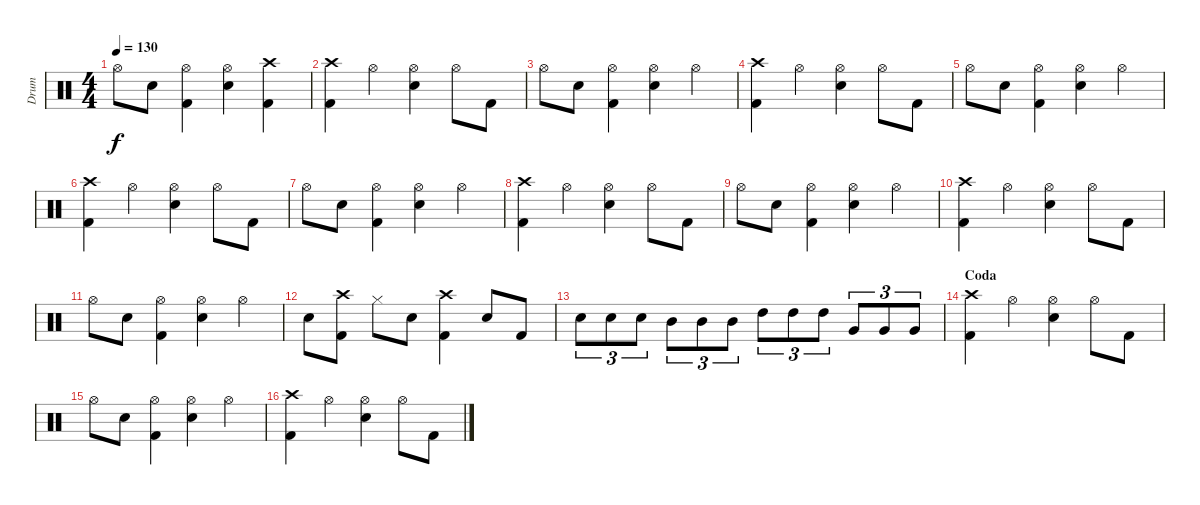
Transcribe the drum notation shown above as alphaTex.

\track ("Drum" "Drum") {instrument percussion}
\staff {score}
\articulation defaults
\ts (4 4)
\tempo 130
\clef neutral
\ks c "Hi-Hat (open)".8{dy f} "Snare (hit) 2".8
("Kick (hit) 2" "Hi-Hat (open)").4 ("Snare (hit) 2" "Hi-Hat (open)").4 ("Crash high (hit)" "Kick (hit) 2").4 |
("Crash high (hit)" "Kick (hit) 2").4 "Hi-Hat (open)".4 ("Snare (hit) 2" "Hi-Hat (open)").4 "Hi-Hat (open)".8 "Kick (hit) 2".8 |
"Hi-Hat (open)".8 "Snare (hit) 2".8 ("Kick (hit) 2" "Hi-Hat (open)").4 ("Snare (hit) 2" "Hi-Hat (open)").4 "Hi-Hat (open)".4 |
("Crash high (hit)" "Kick (hit) 2").4 "Hi-Hat (open)".4 ("Snare (hit) 2" "Hi-Hat (open)").4 "Hi-Hat (open)".8 "Kick (hit) 2".8 |
"Hi-Hat (open)".8 "Snare (hit) 2".8 ("Kick (hit) 2" "Hi-Hat (open)").4 ("Snare (hit) 2" "Hi-Hat (open)").4 "Hi-Hat (open)".4 |
("Crash high (hit)" "Kick (hit) 2").4 "Hi-Hat (open)".4 ("Snare (hit) 2" "Hi-Hat (open)").4 "Hi-Hat (open)".8 "Kick (hit) 2".8 |
"Hi-Hat (open)".8 "Snare (hit) 2".8 ("Kick (hit) 2" "Hi-Hat (open)").4 ("Snare (hit) 2" "Hi-Hat (open)").4 "Hi-Hat (open)".4 |
("Crash high (hit)" "Kick (hit) 2").4 "Hi-Hat (open)".4 ("Snare (hit) 2" "Hi-Hat (open)").4 "Hi-Hat (open)".8 "Kick (hit) 2".8 |
"Hi-Hat (open)".8 "Snare (hit) 2".8 ("Kick (hit) 2" "Hi-Hat (open)").4 ("Snare (hit) 2" "Hi-Hat (open)").4 "Hi-Hat (open)".4 |
("Crash high (hit)" "Kick (hit) 2").4 "Hi-Hat (open)".4 ("Snare (hit) 2" "Hi-Hat (open)").4 "Hi-Hat (open)".8 "Kick (hit) 2".8 |
"Hi-Hat (open)".8 "Snare (hit) 2".8 ("Kick (hit) 2" "Hi-Hat (open)").4 ("Snare (hit) 2" "Hi-Hat (open)").4 "Hi-Hat (open)".4 |
"Snare (hit) 2".8 ("Kick (hit) 2" "Crash high (hit)").8 "Hi-Hat (closed)".8 "Snare (hit) 2".8 ("Kick (hit) 2" "Crash high (hit)").4 "Snare (hit) 2".8 "Kick (hit) 2".8 |
"Snare (hit) 2".8{tu (3 2)} "Snare (hit) 2".8{tu (3 2)} "Snare (hit) 2".8{tu (3 2)} "Mid Tom (hit)".8{tu (3 2)} "Mid Tom (hit)".8{tu (3 2)} "Mid Tom (hit)".8{tu (3 2)} "High Tom (hit)".8{tu (3 2)} "High Tom (hit)".8{tu (3 2)} "High Tom (hit)".8{tu (3 2)} "Very Low Tom (hit)".8{tu (3 2)} "Very Low Tom (hit)".8{tu (3 2)} "Very Low Tom (hit)".8{tu (3 2)} |
\section ("" "Coda")
("Crash high (hit)" "Kick (hit) 2").4 "Hi-Hat (open)".4 ("Snare (hit) 2" "Hi-Hat (open)").4 "Hi-Hat (open)".8 "Kick (hit) 2".8 |
"Hi-Hat (open)".8 "Snare (hit) 2".8 ("Kick (hit) 2" "Hi-Hat (open)").4 ("Snare (hit) 2" "Hi-Hat (open)").4 "Hi-Hat (open)".4 |
("Crash high (hit)" "Kick (hit) 2").4 "Hi-Hat (open)".4 ("Snare (hit) 2" "Hi-Hat (open)").4 "Hi-Hat (open)".8 "Kick (hit) 2".8
